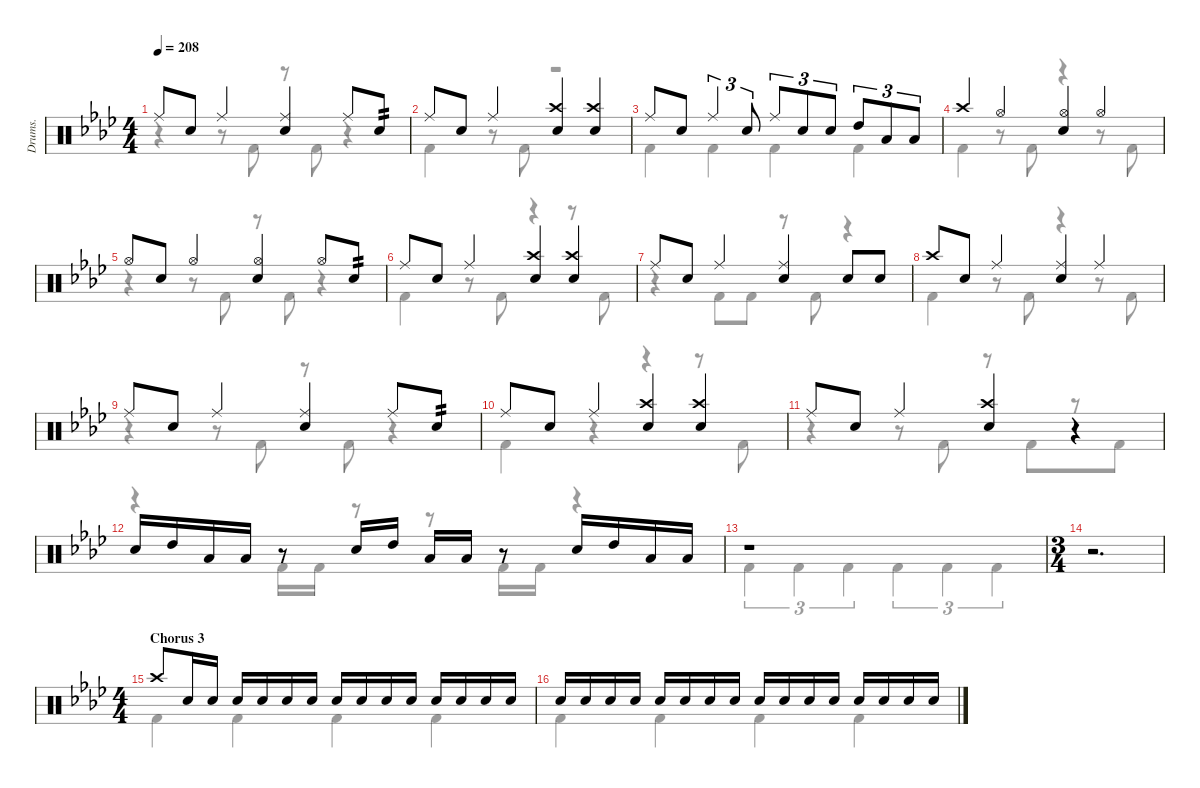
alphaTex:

\defaultSystemsLayout 4
\hideDynamics
\otherSystemsTrackNameOrientation horizontal
\track ("Drumkit" "Drums.") {defaultSystemsLayout 4 instrument percussion}
\staff {score}
\articulation defaults
\voice
\ts (4 4)
\tempo 208
\clef neutral
\ks fminor "Ride (middle)"{acc forcenatural}.8{dy mf} "Snare (hit) 2"{acc forcenatural}.8 "Ride (middle)"{acc forcenatural}.4
("Ride (middle)"{acc forcenatural} "Snare (hit) 2"{acc forcenatural}).4 "Ride (middle)"{acc forcenatural}.8 "Snare (hit) 2"{acc forcenatural}.8{tp 2} |
"Ride (middle)"{acc forcenatural}.8 "Snare (hit) 2"{acc forcenatural}.8 "Ride (middle)"{acc forcenatural}.4 ("Snare (hit) 2"{acc forcenatural} "Crash high (hit)"{acc forcenatural}).4 ("Snare (hit) 2"{acc forcenatural} "Crash high (hit)"{acc forcenatural}).4 |
"Ride (middle)"{acc forcenatural}.8 "Snare (hit) 2"{acc forcenatural}.8 "Ride (middle)"{acc forcenatural}.4{tu (3 2)} "Snare (hit) 2"{acc forcenatural}.8{tu (3 2)} "Ride (middle)"{acc forcenatural}.8{tu (3 2)} "Snare (hit) 2"{acc forcenatural}.8{tu (3 2)} "Snare (hit) 2"{acc forcenatural}.8{tu (3 2)} "High Tom (hit)"{acc forcenatural}.8{tu (3 2)} "Low Tom (hit)"{acc forcenatural}.8{tu (3 2)} "Low Tom (hit)"{acc forcenatural}.8{tu (3 2)} |
"Crash high (hit)"{acc forcenatural}.4 "Hi-Hat (open)"{acc forcenatural}.4 ("Hi-Hat (open)"{acc forcenatural} "Snare (hit) 2"{acc forcenatural}).4 "Hi-Hat (open)"{acc forcenatural}.4 |
"Hi-Hat (open)"{acc forcenatural}.8 "Snare (hit) 2"{acc forcenatural}.8 "Hi-Hat (open)"{acc forcenatural}.4 ("Snare (hit) 2"{acc forcenatural} "Hi-Hat (open)"{acc forcenatural}).4 "Hi-Hat (open)"{acc forcenatural}.8 "Snare (hit) 2"{acc forcenatural}.8{tp 2} |
"Ride (middle)"{acc forcenatural}.8 "Snare (hit) 2"{acc forcenatural}.8 "Ride (middle)"{acc forcenatural}.4 ("Snare (hit) 2"{acc forcenatural} "Crash high (hit)"{acc forcenatural}).4 ("Snare (hit) 2"{acc forcenatural} "Crash high (hit)"{acc forcenatural}).4 |
"Ride (middle)"{acc forcenatural}.8 "Snare (hit) 2"{acc forcenatural}.8 "Ride (middle)"{acc forcenatural}.4 ("Ride (middle)"{acc forcenatural} "Snare (hit) 2"{acc forcenatural}).4 "Snare (hit) 2"{acc forcenatural}.8 "Snare (hit) 2"{acc forcenatural}.8 |
"Crash high (hit)"{acc forcenatural}.8 "Snare (hit) 2"{acc forcenatural}.8 "Ride (middle)"{acc forcenatural}.4 ("Ride (middle)"{acc forcenatural} "Snare (hit) 2"{acc forcenatural}).4 "Ride (middle)"{acc forcenatural}.4 |
"Ride (middle)"{acc forcenatural}.8 "Snare (hit) 2"{acc forcenatural}.8 "Ride (middle)"{acc forcenatural}.4 ("Ride (middle)"{acc forcenatural} "Snare (hit) 2"{acc forcenatural}).4 "Ride (middle)"{acc forcenatural}.8 "Snare (hit) 2"{acc forcenatural}.8{tp 2} |
"Ride (middle)"{acc forcenatural}.8 "Snare (hit) 2"{acc forcenatural}.8 "Ride (middle)"{acc forcenatural}.4 ("Snare (hit) 2"{acc forcenatural} "Crash high (hit)"{acc forcenatural}).4 ("Snare (hit) 2"{acc forcenatural} "Crash high (hit)"{acc forcenatural}).4 |
"Ride (middle)"{acc forcenatural}.8 "Snare (hit) 2"{acc forcenatural}.8 "Ride (middle)"{acc forcenatural}.4 ("Snare (hit) 2"{acc forcenatural} "Crash high (hit)"{acc forcenatural}).4 r.4 |
"Snare (hit) 2"{acc forcenatural}.16 "High Tom (hit)"{acc forcenatural}.16 "Low Tom (hit)"{acc forcenatural}.16 "Low Tom (hit)"{acc forcenatural}.16 r.8 "Snare (hit) 2"{acc forcenatural}.16 "High Tom (hit)"{acc forcenatural}.16 "Low Tom (hit)"{acc forcenatural}.16 "Low Tom (hit)"{acc forcenatural}.16 r.8 "Snare (hit) 2"{acc forcenatural}.16 "High Tom (hit)"{acc forcenatural}.16 "Low Tom (hit)"{acc forcenatural}.16 "Low Tom (hit)"{acc forcenatural}.16 |
r.1 |
\ts (3 4)
\beaming (8 2 2 2)
r.2{d} |
\ts (4 4)
\section ("" "Chorus 3")
"Crash high (hit)"{acc forcenatural}.8 "Snare (hit) 2"{acc forcenatural}.16 "Snare (hit) 2"{acc forcenatural}.16 "Snare (hit) 2"{acc forcenatural}.16 "Snare (hit) 2"{acc forcenatural}.16 "Snare (hit) 2"{acc forcenatural}.16 "Snare (hit) 2"{acc forcenatural}.16 "Snare (hit) 2"{acc forcenatural}.16 "Snare (hit) 2"{acc forcenatural}.16 "Snare (hit) 2"{acc forcenatural}.16 "Snare (hit) 2"{acc forcenatural}.16 "Snare (hit) 2"{acc forcenatural}.16 "Snare (hit) 2"{acc forcenatural}.16 "Snare (hit) 2"{acc forcenatural}.16 "Snare (hit) 2"{acc forcenatural}.16 |
"Snare (hit) 2"{acc forcenatural}.16 "Snare (hit) 2"{acc forcenatural}.16 "Snare (hit) 2"{acc forcenatural}.16 "Snare (hit) 2"{acc forcenatural}.16 "Snare (hit) 2"{acc forcenatural}.16 "Snare (hit) 2"{acc forcenatural}.16 "Snare (hit) 2"{acc forcenatural}.16 "Snare (hit) 2"{acc forcenatural}.16 "Snare (hit) 2"{acc forcenatural}.16 "Snare (hit) 2"{acc forcenatural}.16 "Snare (hit) 2"{acc forcenatural}.16 "Snare (hit) 2"{acc forcenatural}.16 "Snare (hit) 2"{acc forcenatural}.16 "Snare (hit) 2"{acc forcenatural}.16 "Snare (hit) 2"{acc forcenatural}.16 "Snare (hit) 2"{acc forcenatural}.16
\voice
\clef neutral
\ottava regular
\simile none
\ks fminor
r.4{dy mf} r.8 "Kick (hit) 2"{acc forcenatural}.8 r.8 "Kick (hit) 2"{acc forcenatural}.8 r.4 |
"Kick (hit) 2"{acc forcenatural}.4 r.8 "Kick (hit) 2"{acc forcenatural}.8 r.2 |
"Kick (hit) 2"{acc forcenatural}.4 "Kick (hit) 2"{acc forcenatural}.4 "Kick (hit) 2"{acc forcenatural}.4 "Kick (hit) 2"{acc forcenatural}.4 |
"Kick (hit) 2"{acc forcenatural}.4 r.8 "Kick (hit) 2"{acc forcenatural}.8 r.4 r.8 "Kick (hit) 2"{acc forcenatural}.8 |
r.4 r.8 "Kick (hit) 2"{acc forcenatural}.8 r.8 "Kick (hit) 2"{acc forcenatural}.8 r.4 |
"Kick (hit) 2"{acc forcenatural}.4 r.8 "Kick (hit) 2"{acc forcenatural}.8 r.4 r.8 "Kick (hit) 2"{acc forcenatural}.8 |
r.4 "Kick (hit) 2"{acc forcenatural}.8 "Kick (hit) 2"{acc forcenatural}.8 r.8 "Kick (hit) 2"{acc forcenatural}.8 r.4 |
"Kick (hit) 2"{acc forcenatural}.4 r.8 "Kick (hit) 2"{acc forcenatural}.8 r.4 r.8 "Kick (hit) 2"{acc forcenatural}.8 |
r.4 r.8 "Kick (hit) 2"{acc forcenatural}.8 r.8 "Kick (hit) 2"{acc forcenatural}.8 r.4 |
"Kick (hit) 2"{acc forcenatural}.4 r.4 r.4 r.8 "Kick (hit) 2"{acc forcenatural}.8 |
r.4 r.8 "Kick (hit) 2"{acc forcenatural}.8 r.8 "Kick (hit) 2"{acc forcenatural}.8{beam merge} r.8{beam merge} "Kick (hit) 2"{acc forcenatural}.8 |
r.4 "Kick (hit) 2"{acc forcenatural}.16 "Kick (hit) 2"{acc forcenatural}.16 r.8 r.8 "Kick (hit) 2"{acc forcenatural}.16 "Kick (hit) 2"{acc forcenatural}.16 r.4 |
"Kick (hit) 2"{acc forcenatural}.4{tu (3 2)} "Kick (hit) 2"{acc forcenatural}.4{tu (3 2)} "Kick (hit) 2"{acc forcenatural}.4{tu (3 2)} "Kick (hit) 2"{acc forcenatural}.4{tu (3 2)} "Kick (hit) 2"{acc forcenatural}.4{tu (3 2)} "Kick (hit) 2"{acc forcenatural}.4{tu (3 2)} |
|
"Kick (hit) 2"{acc forcenatural}.4 "Kick (hit) 2"{acc forcenatural}.4 "Kick (hit) 2"{acc forcenatural}.4 "Kick (hit) 2"{acc forcenatural}.4 |
"Kick (hit) 2"{acc forcenatural}.4 "Kick (hit) 2"{acc forcenatural}.4 "Kick (hit) 2"{acc forcenatural}.4 "Kick (hit) 2"{acc forcenatural}.4
